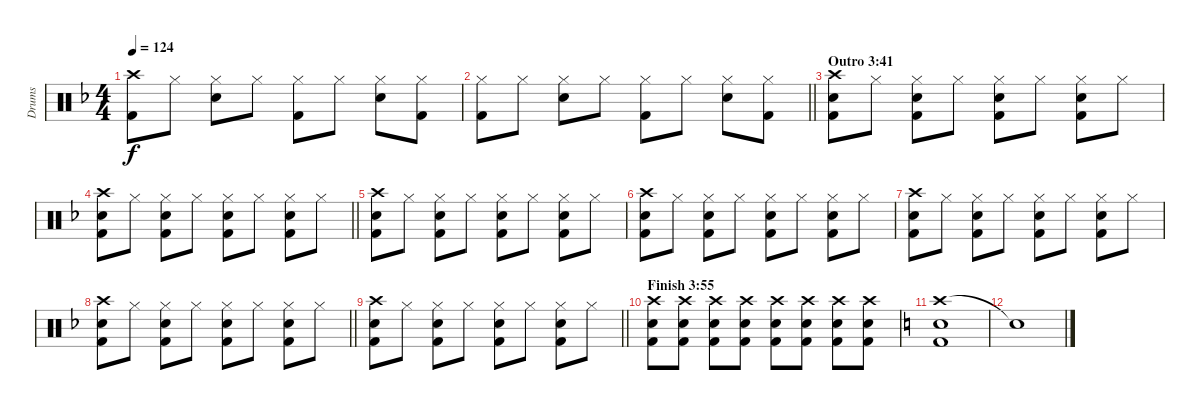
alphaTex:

\track ("Drums" "Drums") {instrument percussion}
\staff {score}
\articulation defaults
\ts (4 4)
\tempo 124
\clef neutral
\ks f
("Crash high (hit)" "Kick (hit) 2").8{dy f} "Hi-Hat (closed)".8 ("Hi-Hat (closed)" "Snare (hit) 2").8 "Hi-Hat (closed)".8 ("Hi-Hat (closed)" "Kick (hit) 2").8 "Hi-Hat (closed)".8 ("Hi-Hat (closed)" "Snare (hit) 2").8 ("Hi-Hat (closed)" "Kick (hit) 2").8 |
\barLineRight lightlight
("Hi-Hat (closed)" "Kick (hit) 2").8 "Hi-Hat (closed)".8 ("Hi-Hat (closed)" "Snare (hit) 2").8 "Hi-Hat (closed)".8 ("Hi-Hat (closed)" "Kick (hit) 2").8 "Hi-Hat (closed)".8 ("Hi-Hat (closed)" "Snare (hit) 2").8 ("Hi-Hat (closed)" "Kick (hit) 2").8 |
\section ("" "Outro 3:41")
("Crash high (hit)" "Snare (hit) 2" "Kick (hit) 2").8 "Hi-Hat (closed)".8 ("Hi-Hat (closed)" "Snare (hit) 2" "Kick (hit) 2").8 "Hi-Hat (closed)".8 ("Hi-Hat (closed)" "Snare (hit) 2" "Kick (hit) 2").8 "Hi-Hat (closed)".8 ("Hi-Hat (closed)" "Snare (hit) 2" "Kick (hit) 2").8 "Hi-Hat (closed)".8 |
\barLineRight lightlight
("Crash high (hit)" "Snare (hit) 2" "Kick (hit) 2").8 "Hi-Hat (closed)".8 ("Hi-Hat (closed)" "Snare (hit) 2" "Kick (hit) 2").8 "Hi-Hat (closed)".8 ("Hi-Hat (closed)" "Snare (hit) 2" "Kick (hit) 2").8 "Hi-Hat (closed)".8 ("Hi-Hat (closed)" "Snare (hit) 2" "Kick (hit) 2").8 "Hi-Hat (closed)".8 |
("Crash high (hit)" "Snare (hit) 2" "Kick (hit) 2").8 "Hi-Hat (closed)".8 ("Hi-Hat (closed)" "Snare (hit) 2" "Kick (hit) 2").8 "Hi-Hat (closed)".8 ("Hi-Hat (closed)" "Snare (hit) 2" "Kick (hit) 2").8 "Hi-Hat (closed)".8 ("Hi-Hat (closed)" "Snare (hit) 2" "Kick (hit) 2").8 "Hi-Hat (closed)".8 |
("Crash high (hit)" "Snare (hit) 2" "Kick (hit) 2").8 "Hi-Hat (closed)".8 ("Hi-Hat (closed)" "Snare (hit) 2" "Kick (hit) 2").8 "Hi-Hat (closed)".8 ("Hi-Hat (closed)" "Snare (hit) 2" "Kick (hit) 2").8 "Hi-Hat (closed)".8 ("Hi-Hat (closed)" "Snare (hit) 2" "Kick (hit) 2").8 "Hi-Hat (closed)".8 |
("Crash high (hit)" "Snare (hit) 2" "Kick (hit) 2").8 "Hi-Hat (closed)".8 ("Hi-Hat (closed)" "Snare (hit) 2" "Kick (hit) 2").8 "Hi-Hat (closed)".8 ("Hi-Hat (closed)" "Snare (hit) 2" "Kick (hit) 2").8 "Hi-Hat (closed)".8 ("Hi-Hat (closed)" "Snare (hit) 2" "Kick (hit) 2").8 "Hi-Hat (closed)".8 |
\barLineRight lightlight
("Crash high (hit)" "Snare (hit) 2" "Kick (hit) 2").8 "Hi-Hat (closed)".8 ("Hi-Hat (closed)" "Snare (hit) 2" "Kick (hit) 2").8 "Hi-Hat (closed)".8 ("Hi-Hat (closed)" "Snare (hit) 2" "Kick (hit) 2").8 "Hi-Hat (closed)".8 ("Hi-Hat (closed)" "Snare (hit) 2" "Kick (hit) 2").8 "Hi-Hat (closed)".8 |
\barLineRight lightlight
("Crash high (hit)" "Snare (hit) 2" "Kick (hit) 2").8 "Hi-Hat (closed)".8 ("Hi-Hat (closed)" "Snare (hit) 2" "Kick (hit) 2").8 "Hi-Hat (closed)".8 ("Hi-Hat (closed)" "Snare (hit) 2" "Kick (hit) 2").8 "Hi-Hat (closed)".8 ("Hi-Hat (closed)" "Snare (hit) 2" "Kick (hit) 2").8 "Hi-Hat (closed)".8 |
\section ("" "Finish 3:55")
("Crash high (hit)" "Snare (hit) 2" "Kick (hit) 2").8 ("Crash high (hit)" "Snare (hit) 2" "Kick (hit) 2").8 ("Crash high (hit)" "Snare (hit) 2" "Kick (hit) 2").8 ("Crash high (hit)" "Snare (hit) 2" "Kick (hit) 2").8 ("Crash high (hit)" "Snare (hit) 2" "Kick (hit) 2").8 ("Crash high (hit)" "Snare (hit) 2" "Kick (hit) 2").8 ("Crash high (hit)" "Snare (hit) 2" "Kick (hit) 2").8 ("Crash high (hit)" "Snare (hit) 2" "Kick (hit) 2").8 |
\ks c
("Crash high (hit)" "Snare (hit) 2" "Kick (hit) 2").1 |
"Snare (hit)"{t}.1
